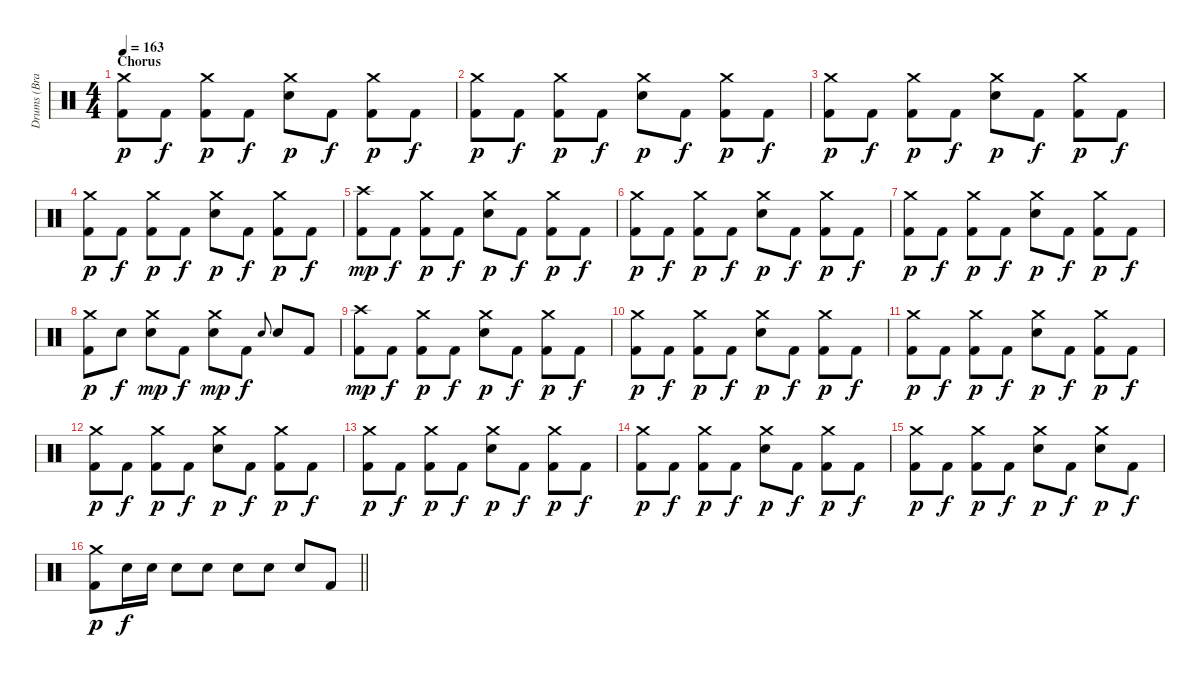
\track ("Drums (Brandon Saller)" "Drums (Bra") {instrument percussion}
\staff {score}
\articulation defaults
\ts (4 4)
\section ("" "Chorus")
\tempo 163
\clef neutral
\ks c
("Crash medium (hit)" "Kick (hit) 2").8{dy p} "Kick (hit) 2".8{dy f} ("Crash medium (hit)" "Kick (hit) 2").8{dy p} "Kick (hit) 2".8{dy f} ("Crash medium (hit)" "Electric Snare (hit)").8{dy p} "Kick (hit) 2".8{dy f} ("Crash medium (hit)" "Kick (hit) 2").8{dy p} "Kick (hit) 2".8{dy f} |
("Crash medium (hit)" "Kick (hit) 2").8{dy p} "Kick (hit) 2".8{dy f} ("Crash medium (hit)" "Kick (hit) 2").8{dy p} "Kick (hit) 2".8{dy f} ("Crash medium (hit)" "Electric Snare (hit)").8{dy p} "Kick (hit) 2".8{dy f} ("Crash medium (hit)" "Kick (hit) 2").8{dy p} "Kick (hit) 2".8{dy f} |
("Crash medium (hit)" "Kick (hit) 2").8{dy p} "Kick (hit) 2".8{dy f} ("Crash medium (hit)" "Kick (hit) 2").8{dy p} "Kick (hit) 2".8{dy f} ("Crash medium (hit)" "Electric Snare (hit)").8{dy p} "Kick (hit) 2".8{dy f} ("Crash medium (hit)" "Kick (hit) 2").8{dy p} "Kick (hit) 2".8{dy f} |
("Crash medium (hit)" "Kick (hit) 2").8{dy p} "Kick (hit) 2".8{dy f} ("Crash medium (hit)" "Kick (hit) 2").8{dy p} "Kick (hit) 2".8{dy f} ("Crash medium (hit)" "Electric Snare (hit)").8{dy p} "Kick (hit) 2".8{dy f} ("Crash medium (hit)" "Kick (hit) 2").8{dy p} "Kick (hit) 2".8{dy f} |
("Crash high (hit)" "Kick (hit) 2").8{dy mp} "Kick (hit) 2".8{dy f} ("Crash medium (hit)" "Kick (hit) 2").8{dy p} "Kick (hit) 2".8{dy f} ("Crash medium (hit)" "Electric Snare (hit)").8{dy p} "Kick (hit) 2".8{dy f} ("Crash medium (hit)" "Kick (hit) 2").8{dy p} "Kick (hit) 2".8{dy f} |
("Crash medium (hit)" "Kick (hit) 2").8{dy p} "Kick (hit) 2".8{dy f} ("Crash medium (hit)" "Kick (hit) 2").8{dy p} "Kick (hit) 2".8{dy f} ("Crash medium (hit)" "Electric Snare (hit)").8{dy p} "Kick (hit) 2".8{dy f} ("Crash medium (hit)" "Kick (hit) 2").8{dy p} "Kick (hit) 2".8{dy f} |
("Crash medium (hit)" "Kick (hit) 2").8{dy p} "Kick (hit) 2".8{dy f} ("Crash medium (hit)" "Kick (hit) 2").8{dy p} "Kick (hit) 2".8{dy f} ("Crash medium (hit)" "Electric Snare (hit)").8{dy p} "Kick (hit) 2".8{dy f} ("Crash medium (hit)" "Kick (hit) 2").8{dy p} "Kick (hit) 2".8{dy f} |
("Crash medium (hit)" "Kick (hit) 2").8{dy p} "Electric Snare (hit)".8{dy f} ("Crash medium (hit)" "Electric Snare (hit)").8{dy mp} "Kick (hit) 2".8{dy f} ("Crash medium (hit)" "Electric Snare (hit)").8{dy mp} "Kick (hit) 2".8{dy f} "Electric Snare (hit)".8{gr onbeat} "Electric Snare (hit)".8 "Kick (hit) 2".8 |
("Crash high (hit)" "Kick (hit) 2").8{dy mp} "Kick (hit) 2".8{dy f} ("Crash medium (hit)" "Kick (hit) 2").8{dy p} "Kick (hit) 2".8{dy f} ("Crash medium (hit)" "Electric Snare (hit)").8{dy p} "Kick (hit) 2".8{dy f} ("Crash medium (hit)" "Kick (hit) 2").8{dy p} "Kick (hit) 2".8{dy f} |
("Crash medium (hit)" "Kick (hit) 2").8{dy p} "Kick (hit) 2".8{dy f} ("Crash medium (hit)" "Kick (hit) 2").8{dy p} "Kick (hit) 2".8{dy f} ("Crash medium (hit)" "Electric Snare (hit)").8{dy p} "Kick (hit) 2".8{dy f} ("Crash medium (hit)" "Kick (hit) 2").8{dy p} "Kick (hit) 2".8{dy f} |
("Crash medium (hit)" "Kick (hit) 2").8{dy p} "Kick (hit) 2".8{dy f} ("Crash medium (hit)" "Kick (hit) 2").8{dy p} "Kick (hit) 2".8{dy f} ("Crash medium (hit)" "Electric Snare (hit)").8{dy p} "Kick (hit) 2".8{dy f} ("Crash medium (hit)" "Kick (hit) 2").8{dy p} "Kick (hit) 2".8{dy f} |
("Crash medium (hit)" "Kick (hit) 2").8{dy p} "Kick (hit) 2".8{dy f} ("Crash medium (hit)" "Kick (hit) 2").8{dy p} "Kick (hit) 2".8{dy f} ("Crash medium (hit)" "Electric Snare (hit)").8{dy p} "Kick (hit) 2".8{dy f} ("Crash medium (hit)" "Kick (hit) 2").8{dy p} "Kick (hit) 2".8{dy f} |
("Crash medium (hit)" "Kick (hit) 2").8{dy p} "Kick (hit) 2".8{dy f} ("Crash medium (hit)" "Kick (hit) 2").8{dy p} "Kick (hit) 2".8{dy f} ("Crash medium (hit)" "Electric Snare (hit)").8{dy p} "Kick (hit) 2".8{dy f} ("Crash medium (hit)" "Kick (hit) 2").8{dy p} "Kick (hit) 2".8{dy f} |
("Crash medium (hit)" "Kick (hit) 2").8{dy p} "Kick (hit) 2".8{dy f} ("Crash medium (hit)" "Kick (hit) 2").8{dy p} "Kick (hit) 2".8{dy f} ("Crash medium (hit)" "Electric Snare (hit)").8{dy p} "Kick (hit) 2".8{dy f} ("Crash medium (hit)" "Kick (hit) 2").8{dy p} "Kick (hit) 2".8{dy f} |
("Crash medium (hit)" "Kick (hit) 2").8{dy p} "Kick (hit) 2".8{dy f} ("Crash medium (hit)" "Kick (hit) 2").8{dy p} "Kick (hit) 2".8{dy f} ("Crash medium (hit)" "Electric Snare (hit)").8{dy p} "Kick (hit) 2".8{dy f} ("Crash medium (hit)" "Electric Snare (hit)").8{dy p} "Kick (hit) 2".8{dy f} |
\barLineRight lightlight
("Crash medium (hit)" "Kick (hit) 2").8{dy p} "Electric Snare (hit)".16{dy f} "Electric Snare (hit)".16 "Electric Snare (hit)".8 "Electric Snare (hit)".8 "Electric Snare (hit)".8 "Electric Snare (hit)".8 "Electric Snare (hit)".8 "Kick (hit) 2".8
